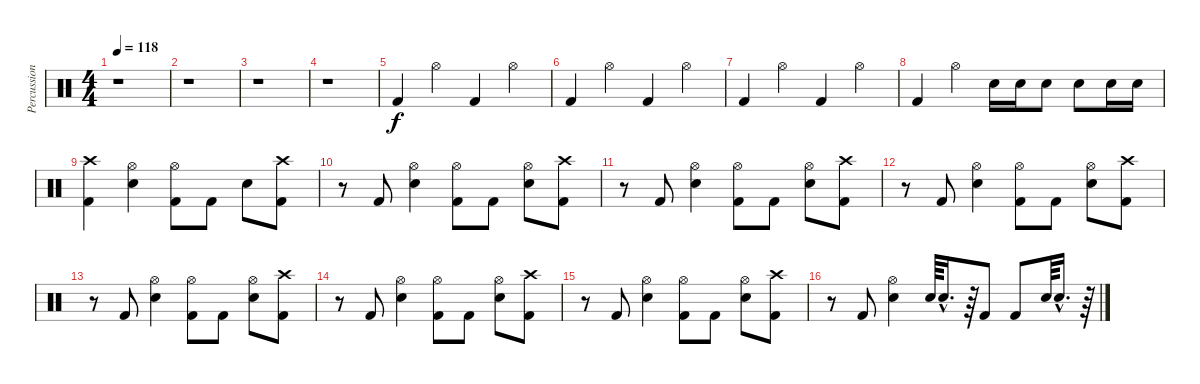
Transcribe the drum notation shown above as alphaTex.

\track ("Percussion" "Percussion") {instrument percussion}
\staff {score}
\articulation defaults
\ts (4 4)
\tempo 118
\clef neutral
\ks c
r.1{dy f} |
r.1 |
r.1 |
r.1 |
"Kick (hit) 2".4 "Hi-Hat (open)".4 "Kick (hit) 2".4 "Hi-Hat (open)".4 |
"Kick (hit) 2".4 "Hi-Hat (open)".4 "Kick (hit) 2".4 "Hi-Hat (open)".4 |
"Kick (hit) 2".4 "Hi-Hat (open)".4 "Kick (hit) 2".4 "Hi-Hat (open)".4 |
"Kick (hit) 2".4 "Hi-Hat (open)".4 "Snare (hit) 2".16 "Snare (hit) 2".16 "Snare (hit) 2".8 "Snare (hit) 2".8 "Snare (hit) 2".16 "Snare (hit) 2".16 |
("Crash high (hit)" "Kick (hit) 2").4 ("Hi-Hat (open)" "Snare (hit) 2").4 ("Hi-Hat (open)" "Kick (hit) 2").8 "Kick (hit) 2".8 "Snare (hit) 2".8 ("Crash high (hit)" "Kick (hit) 2").8 |
r.8 "Kick (hit) 2".8 ("Hi-Hat (open)" "Snare (hit) 2").4 ("Hi-Hat (open)" "Kick (hit) 2").8 "Kick (hit) 2".8 ("Hi-Hat (open)" "Snare (hit) 2").8 ("Crash high (hit)" "Kick (hit) 2").8 |
r.8 "Kick (hit) 2".8 ("Hi-Hat (open)" "Snare (hit) 2").4 ("Hi-Hat (open)" "Kick (hit) 2").8 "Kick (hit) 2".8 ("Hi-Hat (open)" "Snare (hit) 2").8 ("Crash high (hit)" "Kick (hit) 2").8 |
r.8 "Kick (hit) 2".8 ("Hi-Hat (open)" "Snare (hit) 2").4 ("Hi-Hat (open)" "Kick (hit) 2").8 "Kick (hit) 2".8 ("Hi-Hat (open)" "Snare (hit) 2").8 ("Crash high (hit)" "Kick (hit) 2").8 |
r.8 "Kick (hit) 2".8 ("Hi-Hat (open)" "Snare (hit) 2").4 ("Hi-Hat (open)" "Kick (hit) 2").8 "Kick (hit) 2".8 ("Hi-Hat (open)" "Snare (hit) 2").8 ("Crash high (hit)" "Kick (hit) 2").8 |
r.8 "Kick (hit) 2".8 ("Hi-Hat (open)" "Snare (hit) 2").4 ("Hi-Hat (open)" "Kick (hit) 2").8 "Kick (hit) 2".8 ("Hi-Hat (open)" "Snare (hit) 2").8 ("Crash high (hit)" "Kick (hit) 2").8 |
r.8 "Kick (hit) 2".8 ("Hi-Hat (open)" "Snare (hit) 2").4 ("Hi-Hat (open)" "Kick (hit) 2").8 "Kick (hit) 2".8 ("Hi-Hat (open)" "Snare (hit) 2").8 ("Crash high (hit)" "Kick (hit) 2").8 |
r.8 "Kick (hit) 2".8 ("Hi-Hat (open)" "Snare (hit) 2").4 "Snare (hit) 2".64 "Snare (hit) 2"{hac}.16{d} r.64 "Kick (hit) 2".8 "Kick (hit) 2".8 "Snare (hit) 2".64 "Snare (hit) 2"{hac}.16{d} r.64
